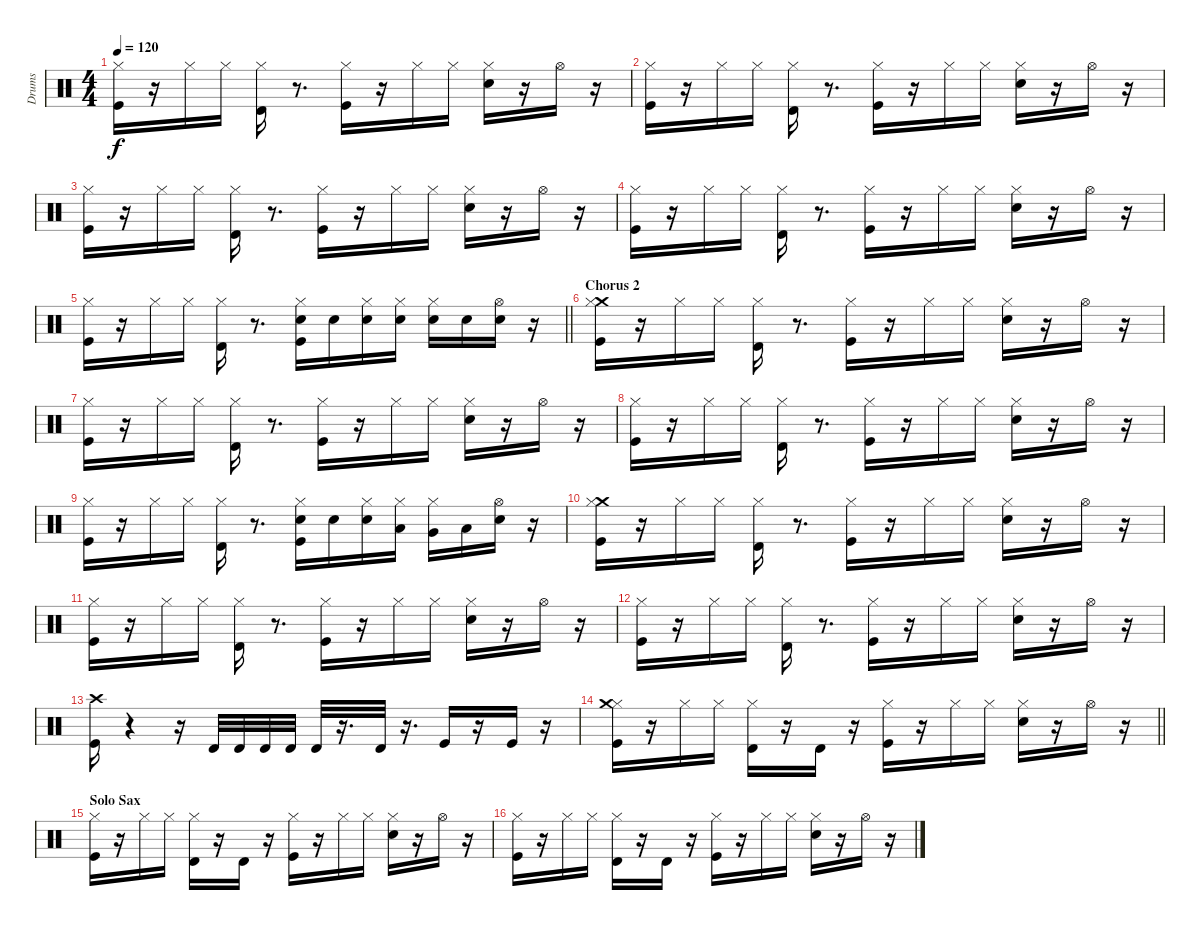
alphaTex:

\track ("Drums" "Drums") {instrument percussion}
\staff {score}
\articulation defaults
\ts (4 4)
\tempo 120
\clef neutral
\ks c
("Hi-Hat (closed)" "Kick (hit)").16{dy f} r.16 "Hi-Hat (closed)".16 "Hi-Hat (closed)".16 ("Hi-Hat (closed)" "Timbale high (hit)").16 r.8{d} ("Hi-Hat (closed)" "Kick (hit)").16 r.16 "Hi-Hat (closed)".16 "Hi-Hat (closed)".16 ("Hi-Hat (closed)" "Snare (hit) 2").16 r.16 "Hi-Hat (open)".16 r.16 |
("Hi-Hat (closed)" "Kick (hit)").16 r.16 "Hi-Hat (closed)".16 "Hi-Hat (closed)".16 ("Hi-Hat (closed)" "Timbale high (hit)").16 r.8{d} ("Hi-Hat (closed)" "Kick (hit)").16 r.16 "Hi-Hat (closed)".16 "Hi-Hat (closed)".16 ("Hi-Hat (closed)" "Snare (hit) 2").16 r.16 "Hi-Hat (open)".16 r.16 |
("Hi-Hat (closed)" "Kick (hit)").16 r.16 "Hi-Hat (closed)".16 "Hi-Hat (closed)".16 ("Hi-Hat (closed)" "Timbale high (hit)").16 r.8{d} ("Hi-Hat (closed)" "Kick (hit)").16 r.16 "Hi-Hat (closed)".16 "Hi-Hat (closed)".16 ("Hi-Hat (closed)" "Snare (hit) 2").16 r.16 "Hi-Hat (open)".16 r.16 |
("Hi-Hat (closed)" "Kick (hit)").16 r.16 "Hi-Hat (closed)".16 "Hi-Hat (closed)".16 ("Hi-Hat (closed)" "Timbale high (hit)").16 r.8{d} ("Hi-Hat (closed)" "Kick (hit)").16 r.16 "Hi-Hat (closed)".16 "Hi-Hat (closed)".16 ("Hi-Hat (closed)" "Snare (hit) 2").16 r.16 "Hi-Hat (open)".16 r.16 |
\barLineRight lightlight
("Hi-Hat (closed)" "Kick (hit)").16 r.16 "Hi-Hat (closed)".16 "Hi-Hat (closed)".16 ("Hi-Hat (closed)" "Timbale high (hit)").16 r.8{d} ("Electric Snare (hit)" "Hi-Hat (closed)" "Kick (hit)").16 "Electric Snare (hit)".16 ("Electric Snare (hit)" "Hi-Hat (closed)").16 ("Electric Snare (hit)" "Hi-Hat (closed)").16 ("Hi-Hat (closed)" "Electric Snare (hit)").16 "Electric Snare (hit)".16 ("Electric Snare (hit)" "Hi-Hat (open)").16 r.16 |
\section ("" "Chorus 2")
("Crash medium (hit)" "Hi-Hat (closed)" "Kick (hit)").16 r.16 "Hi-Hat (closed)".16 "Hi-Hat (closed)".16 ("Hi-Hat (closed)" "Timbale high (hit)").16 r.8{d} ("Hi-Hat (closed)" "Kick (hit)").16 r.16 "Hi-Hat (closed)".16 "Hi-Hat (closed)".16 ("Hi-Hat (closed)" "Snare (hit) 2").16 r.16 "Hi-Hat (open)".16 r.16 |
("Hi-Hat (closed)" "Kick (hit)").16 r.16 "Hi-Hat (closed)".16 "Hi-Hat (closed)".16 ("Hi-Hat (closed)" "Timbale high (hit)").16 r.8{d} ("Hi-Hat (closed)" "Kick (hit)").16 r.16 "Hi-Hat (closed)".16 "Hi-Hat (closed)".16 ("Hi-Hat (closed)" "Snare (hit) 2").16 r.16 "Hi-Hat (open)".16 r.16 |
("Hi-Hat (closed)" "Kick (hit)").16 r.16 "Hi-Hat (closed)".16 "Hi-Hat (closed)".16 ("Hi-Hat (closed)" "Timbale high (hit)").16 r.8{d} ("Hi-Hat (closed)" "Kick (hit)").16 r.16 "Hi-Hat (closed)".16 "Hi-Hat (closed)".16 ("Hi-Hat (closed)" "Snare (hit) 2").16 r.16 "Hi-Hat (open)".16 r.16 |
("Hi-Hat (closed)" "Kick (hit)").16 r.16 "Hi-Hat (closed)".16 "Hi-Hat (closed)".16 ("Hi-Hat (closed)" "Timbale high (hit)").16 r.8{d} ("Electric Snare (hit)" "Hi-Hat (closed)" "Kick (hit)").16 "Electric Snare (hit)".16 ("Electric Snare (hit)" "Hi-Hat (closed)").16 ("Low Floor Tom (hit)" "Hi-Hat (closed)").16 ("Hi-Hat (closed)" "Very Low Tom (hit)").16 "Low Tom (hit)".16 ("Electric Snare (hit)" "Hi-Hat (open)").16 r.16 |
("Crash medium (hit)" "Hi-Hat (closed)" "Kick (hit)").16 r.16 "Hi-Hat (closed)".16 "Hi-Hat (closed)".16 ("Hi-Hat (closed)" "Timbale high (hit)").16 r.8{d} ("Hi-Hat (closed)" "Kick (hit)").16 r.16 "Hi-Hat (closed)".16 "Hi-Hat (closed)".16 ("Hi-Hat (closed)" "Snare (hit) 2").16 r.16 "Hi-Hat (open)".16 r.16 |
("Hi-Hat (closed)" "Kick (hit)").16 r.16 "Hi-Hat (closed)".16 "Hi-Hat (closed)".16 ("Hi-Hat (closed)" "Timbale high (hit)").16 r.8{d} ("Hi-Hat (closed)" "Kick (hit)").16 r.16 "Hi-Hat (closed)".16 "Hi-Hat (closed)".16 ("Hi-Hat (closed)" "Snare (hit) 2").16 r.16 "Hi-Hat (open)".16 r.16 |
("Hi-Hat (closed)" "Kick (hit)").16 r.16 "Hi-Hat (closed)".16 "Hi-Hat (closed)".16 ("Hi-Hat (closed)" "Timbale high (hit)").16 r.8{d} ("Hi-Hat (closed)" "Kick (hit)").16 r.16 "Hi-Hat (closed)".16 "Hi-Hat (closed)".16 ("Hi-Hat (closed)" "Snare (hit) 2").16 r.16 "Hi-Hat (open)".16 r.16 |
("Crash high (hit)" "Kick (hit)").16 r.4 r.16 "Timbale high (hit)".32 "Timbale high (hit)".32 "Timbale high (hit)".32 "Timbale high (hit)".32 "Timbale high (hit)".32 r.16{d} "Timbale high (hit)".32 r.16{d} "Kick (hit)".16 r.16 "Kick (hit)".16 r.16 |
\barLineRight lightlight
("Hi-Hat (closed)" "Kick (hit)" "Crash medium (hit)").16 r.16 "Hi-Hat (closed)".16 "Hi-Hat (closed)".16 ("Hi-Hat (closed)" "Timbale high (hit)").16 r.16 "Timbale high (hit)".16 r.16 ("Hi-Hat (closed)" "Kick (hit)").16 r.16 "Hi-Hat (closed)".16 "Hi-Hat (closed)".16 ("Hi-Hat (closed)" "Snare (hit) 2").16 r.16 "Hi-Hat (open)".16 r.16 |
\section ("" "Solo Sax")
("Hi-Hat (closed)" "Kick (hit)").16 r.16 "Hi-Hat (closed)".16 "Hi-Hat (closed)".16 ("Hi-Hat (closed)" "Timbale high (hit)").16 r.16 "Timbale high (hit)".16 r.16 ("Hi-Hat (closed)" "Kick (hit)").16 r.16 "Hi-Hat (closed)".16 "Hi-Hat (closed)".16 ("Hi-Hat (closed)" "Snare (hit) 2").16 r.16 "Hi-Hat (open)".16 r.16 |
("Hi-Hat (closed)" "Kick (hit)").16 r.16 "Hi-Hat (closed)".16 "Hi-Hat (closed)".16 ("Hi-Hat (closed)" "Timbale high (hit)").16 r.16 "Timbale high (hit)".16 r.16 ("Hi-Hat (closed)" "Kick (hit)").16 r.16 "Hi-Hat (closed)".16 "Hi-Hat (closed)".16 ("Hi-Hat (closed)" "Snare (hit) 2").16 r.16 "Hi-Hat (open)".16 r.16
